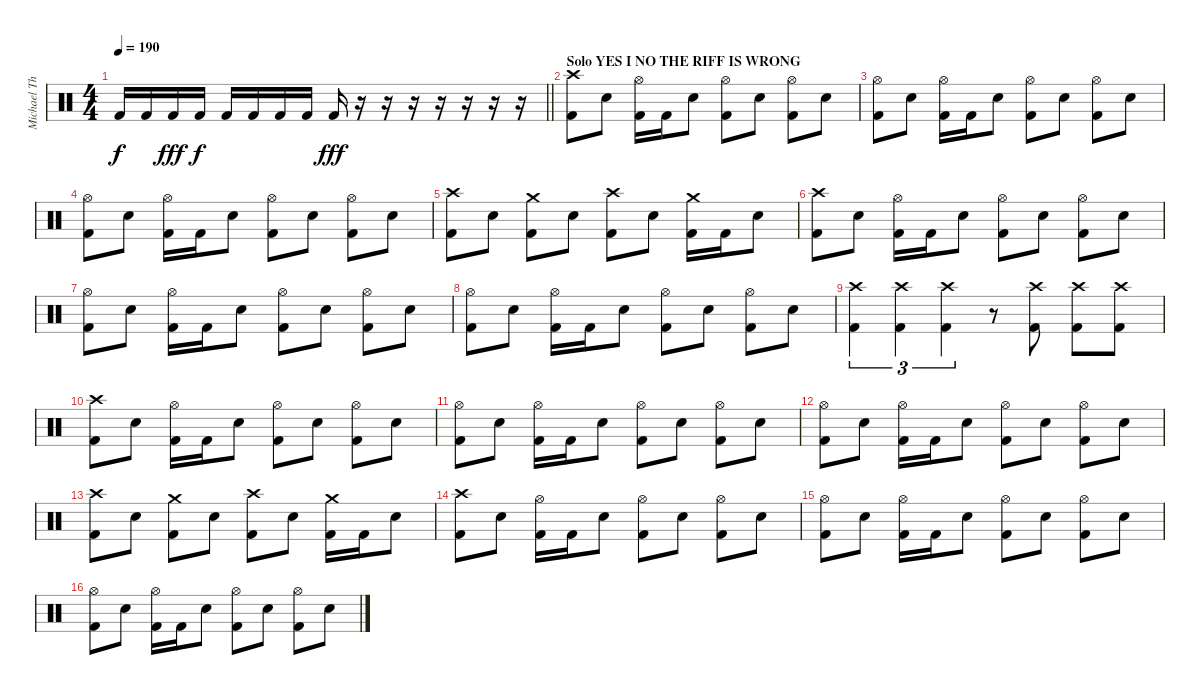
\track ("Michael Thomas Жжёт!" "Michael Th") {instrument percussion}
\staff {score}
\articulation defaults
\ts (4 4)
\tempo 190
\clef neutral
\barLineRight lightlight
\ks c "Kick (hit) 2".16{dy f} "Kick (hit) 2".16 "Kick (hit) 2".16{dy fff} "Kick (hit) 2".16{dy f} "Kick (hit) 2".16 "Kick (hit) 2".16 "Kick (hit) 2".16 "Kick (hit) 2".16 "Kick (hit) 2".16{dy fff}
r.16 r.16 r.16 r.16 r.16 r.16 r.16 |
\section ("" "Solo YES I NO THE RIFF IS WRONG")
("Crash high (hit)" "Kick (hit) 2").8 "Electric Snare (hit)".8 ("Hi-Hat (open)" "Kick (hit) 2").16 "Kick (hit) 2".16 "Electric Snare (hit)".8 ("Hi-Hat (open)" "Kick (hit) 2").8 "Electric Snare (hit)".8 ("Hi-Hat (open)" "Kick (hit) 2").8 "Electric Snare (hit)".8 |
("Hi-Hat (open)" "Kick (hit) 2").8 "Electric Snare (hit)".8 ("Hi-Hat (open)" "Kick (hit) 2").16 "Kick (hit) 2".16 "Electric Snare (hit)".8 ("Hi-Hat (open)" "Kick (hit) 2").8 "Electric Snare (hit)".8 ("Hi-Hat (open)" "Kick (hit) 2").8 "Electric Snare (hit)".8 |
("Hi-Hat (open)" "Kick (hit) 2").8 "Electric Snare (hit)".8 ("Hi-Hat (open)" "Kick (hit) 2").16 "Kick (hit) 2".16 "Electric Snare (hit)".8 ("Hi-Hat (open)" "Kick (hit) 2").8 "Electric Snare (hit)".8 ("Hi-Hat (open)" "Kick (hit) 2").8 "Electric Snare (hit)".8 |
("Crash high (hit)" "Kick (hit) 2").8 "Electric Snare (hit)".8 ("Crash medium (hit)" "Kick (hit) 2").8 "Electric Snare (hit)".8 ("Crash high (hit)" "Kick (hit) 2").8 "Electric Snare (hit)".8 ("Crash medium (hit)" "Kick (hit) 2").16 "Kick (hit) 2".16 "Electric Snare (hit)".8 |
("Crash high (hit)" "Kick (hit) 2").8 "Electric Snare (hit)".8 ("Hi-Hat (open)" "Kick (hit) 2").16 "Kick (hit) 2".16 "Electric Snare (hit)".8 ("Hi-Hat (open)" "Kick (hit) 2").8 "Electric Snare (hit)".8 ("Hi-Hat (open)" "Kick (hit) 2").8 "Electric Snare (hit)".8 |
("Hi-Hat (open)" "Kick (hit) 2").8 "Electric Snare (hit)".8 ("Hi-Hat (open)" "Kick (hit) 2").16 "Kick (hit) 2".16 "Electric Snare (hit)".8 ("Hi-Hat (open)" "Kick (hit) 2").8 "Electric Snare (hit)".8 ("Hi-Hat (open)" "Kick (hit) 2").8 "Electric Snare (hit)".8 |
("Hi-Hat (open)" "Kick (hit) 2").8 "Electric Snare (hit)".8 ("Hi-Hat (open)" "Kick (hit) 2").16 "Kick (hit) 2".16 "Electric Snare (hit)".8 ("Hi-Hat (open)" "Kick (hit) 2").8 "Electric Snare (hit)".8 ("Hi-Hat (open)" "Kick (hit) 2").8 "Electric Snare (hit)".8 |
("Crash high (hit)" "Kick (hit) 2").4{tu (3 2)} ("Crash high (hit)" "Kick (hit) 2").4{tu (3 2)} ("Crash high (hit)" "Kick (hit) 2").4{tu (3 2)} r.8 ("Crash high (hit)" "Kick (hit) 2").8 ("Crash high (hit)" "Kick (hit) 2").8 ("Crash high (hit)" "Kick (hit) 2").8 |
("Crash high (hit)" "Kick (hit) 2").8 "Electric Snare (hit)".8 ("Hi-Hat (open)" "Kick (hit) 2").16 "Kick (hit) 2".16 "Electric Snare (hit)".8 ("Hi-Hat (open)" "Kick (hit) 2").8 "Electric Snare (hit)".8 ("Hi-Hat (open)" "Kick (hit) 2").8 "Electric Snare (hit)".8 |
("Hi-Hat (open)" "Kick (hit) 2").8 "Electric Snare (hit)".8 ("Hi-Hat (open)" "Kick (hit) 2").16 "Kick (hit) 2".16 "Electric Snare (hit)".8 ("Hi-Hat (open)" "Kick (hit) 2").8 "Electric Snare (hit)".8 ("Hi-Hat (open)" "Kick (hit) 2").8 "Electric Snare (hit)".8 |
("Hi-Hat (open)" "Kick (hit) 2").8 "Electric Snare (hit)".8 ("Hi-Hat (open)" "Kick (hit) 2").16 "Kick (hit) 2".16 "Electric Snare (hit)".8 ("Hi-Hat (open)" "Kick (hit) 2").8 "Electric Snare (hit)".8 ("Hi-Hat (open)" "Kick (hit) 2").8 "Electric Snare (hit)".8 |
("Crash high (hit)" "Kick (hit) 2").8 "Electric Snare (hit)".8 ("Crash medium (hit)" "Kick (hit) 2").8 "Electric Snare (hit)".8 ("Crash high (hit)" "Kick (hit) 2").8 "Electric Snare (hit)".8 ("Crash medium (hit)" "Kick (hit) 2").16 "Kick (hit) 2".16 "Electric Snare (hit)".8 |
("Crash high (hit)" "Kick (hit) 2").8 "Electric Snare (hit)".8 ("Hi-Hat (open)" "Kick (hit) 2").16 "Kick (hit) 2".16 "Electric Snare (hit)".8 ("Hi-Hat (open)" "Kick (hit) 2").8 "Electric Snare (hit)".8 ("Hi-Hat (open)" "Kick (hit) 2").8 "Electric Snare (hit)".8 |
("Hi-Hat (open)" "Kick (hit) 2").8 "Electric Snare (hit)".8 ("Hi-Hat (open)" "Kick (hit) 2").16 "Kick (hit) 2".16 "Electric Snare (hit)".8 ("Hi-Hat (open)" "Kick (hit) 2").8 "Electric Snare (hit)".8 ("Hi-Hat (open)" "Kick (hit) 2").8 "Electric Snare (hit)".8 |
("Hi-Hat (open)" "Kick (hit) 2").8 "Electric Snare (hit)".8 ("Hi-Hat (open)" "Kick (hit) 2").16 "Kick (hit) 2".16 "Electric Snare (hit)".8 ("Hi-Hat (open)" "Kick (hit) 2").8 "Electric Snare (hit)".8 ("Hi-Hat (open)" "Kick (hit) 2").8 "Electric Snare (hit)".8
